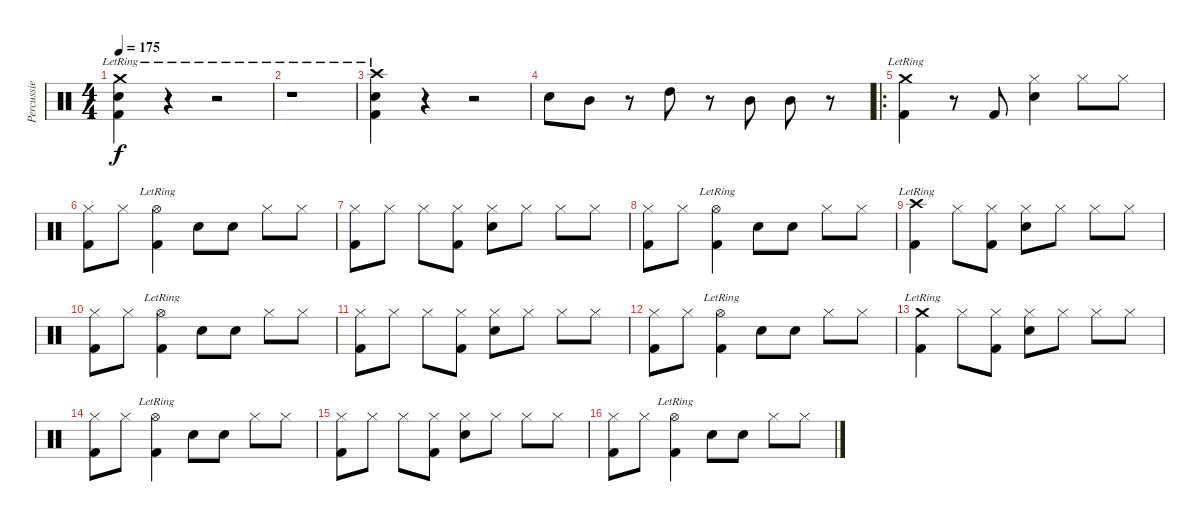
\track ("Percussie" "Percussie") {instrument percussion}
\staff {score}
\articulation defaults
\ts (4 4)
\tempo 175
\clef neutral
\ks c
("Crash medium (hit)"{lr} "Snare (hit) 2" "Kick (hit) 2").4{dy f} r.4 r.2 |
r.1 |
("Crash high (hit)"{lr} "Snare (hit) 2" "Kick (hit) 2").4 r.4 r.2 |
"Snare (hit) 2".8 "Mid Tom (hit)".8 r.8 "High Tom (hit)".8 r.8 "Mid Tom (hit)".8 "Mid Tom (hit)".8 r.8 |
\ro
("Crash medium (hit)"{lr} "Kick (hit) 2").4 r.8 "Kick (hit) 2".8 ("Hi-Hat (closed)" "Snare (hit) 2").4 "Hi-Hat (closed)".8 "Hi-Hat (closed)".8 |
("Hi-Hat (closed)" "Kick (hit) 2").8 "Hi-Hat (closed)".8 ("Hi-Hat (open)"{lr} "Kick (hit) 2").4 "Snare (hit) 2".8 "Snare (hit) 2".8 "Hi-Hat (closed)".8 "Hi-Hat (closed)".8 |
("Hi-Hat (closed)" "Kick (hit) 2").8 "Hi-Hat (closed)".8 "Hi-Hat (closed)".8 ("Hi-Hat (closed)" "Kick (hit) 2").8 ("Hi-Hat (closed)" "Snare (hit) 2").8 "Hi-Hat (closed)".8 "Hi-Hat (closed)".8 "Hi-Hat (closed)".8 |
("Hi-Hat (closed)" "Kick (hit) 2").8 "Hi-Hat (closed)".8 ("Hi-Hat (open)"{lr} "Kick (hit) 2").4 "Snare (hit) 2".8 "Snare (hit) 2".8 "Hi-Hat (closed)".8 "Hi-Hat (closed)".8 |
("Crash high (hit)"{lr} "Kick (hit) 2").4 "Hi-Hat (closed)".8 ("Hi-Hat (closed)" "Kick (hit) 2").8 ("Hi-Hat (closed)" "Snare (hit) 2").8 "Hi-Hat (closed)".8 "Hi-Hat (closed)".8 "Hi-Hat (closed)".8 |
("Hi-Hat (closed)" "Kick (hit) 2").8 "Hi-Hat (closed)".8 ("Hi-Hat (open)"{lr} "Kick (hit) 2").4 "Snare (hit) 2".8 "Snare (hit) 2".8 "Hi-Hat (closed)".8 "Hi-Hat (closed)".8 |
("Hi-Hat (closed)" "Kick (hit) 2").8 "Hi-Hat (closed)".8 "Hi-Hat (closed)".8 ("Hi-Hat (closed)" "Kick (hit) 2").8 ("Hi-Hat (closed)" "Snare (hit) 2").8 "Hi-Hat (closed)".8 "Hi-Hat (closed)".8 "Hi-Hat (closed)".8 |
("Hi-Hat (closed)" "Kick (hit) 2").8 "Hi-Hat (closed)".8 ("Hi-Hat (open)"{lr} "Kick (hit) 2").4 "Snare (hit) 2".8 "Snare (hit) 2".8 "Hi-Hat (closed)".8 "Hi-Hat (closed)".8 |
("Crash medium (hit)"{lr} "Kick (hit) 2").4 "Hi-Hat (closed)".8 ("Hi-Hat (closed)" "Kick (hit) 2").8 ("Hi-Hat (closed)" "Snare (hit) 2").8 "Hi-Hat (closed)".8 "Hi-Hat (closed)".8 "Hi-Hat (closed)".8 |
("Hi-Hat (closed)" "Kick (hit) 2").8 "Hi-Hat (closed)".8 ("Hi-Hat (open)"{lr} "Kick (hit) 2").4 "Snare (hit) 2".8 "Snare (hit) 2".8 "Hi-Hat (closed)".8 "Hi-Hat (closed)".8 |
("Hi-Hat (closed)" "Kick (hit) 2").8 "Hi-Hat (closed)".8 "Hi-Hat (closed)".8 ("Hi-Hat (closed)" "Kick (hit) 2").8 ("Hi-Hat (closed)" "Snare (hit) 2").8 "Hi-Hat (closed)".8 "Hi-Hat (closed)".8 "Hi-Hat (closed)".8 |
("Hi-Hat (closed)" "Kick (hit) 2").8 "Hi-Hat (closed)".8 ("Hi-Hat (open)"{lr} "Kick (hit) 2").4 "Snare (hit) 2".8 "Snare (hit) 2".8 "Hi-Hat (closed)".8 "Hi-Hat (closed)".8
